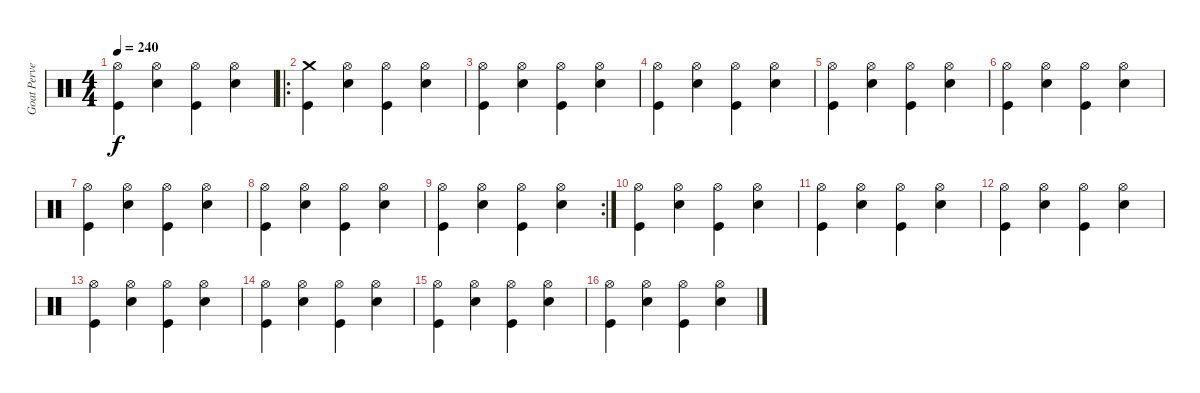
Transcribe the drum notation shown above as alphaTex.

\track ("Goat Pervertor" "Goat Perve") {instrument percussion}
\staff {score}
\articulation defaults
\ts (4 4)
\tempo 240
\clef neutral
\ks c
("Kick (hit)" "Hi-Hat (open)").4{dy f} ("Snare (hit) 2" "Hi-Hat (open)").4 ("Kick (hit)" "Hi-Hat (open)").4 ("Snare (hit) 2" "Hi-Hat (open)").4 |
\ro
("Kick (hit)" "Crash medium (hit)").4 ("Snare (hit) 2" "Hi-Hat (open)").4 ("Kick (hit)" "Hi-Hat (open)").4 ("Snare (hit) 2" "Hi-Hat (open)").4 |
("Kick (hit)" "Hi-Hat (open)").4 ("Snare (hit) 2" "Hi-Hat (open)").4 ("Kick (hit)" "Hi-Hat (open)").4 ("Snare (hit) 2" "Hi-Hat (open)").4 |
("Kick (hit)" "Hi-Hat (open)").4 ("Snare (hit) 2" "Hi-Hat (open)").4 ("Kick (hit)" "Hi-Hat (open)").4 ("Snare (hit) 2" "Hi-Hat (open)").4 |
("Kick (hit)" "Hi-Hat (open)").4 ("Snare (hit) 2" "Hi-Hat (open)").4 ("Kick (hit)" "Hi-Hat (open)").4 ("Snare (hit) 2" "Hi-Hat (open)").4 |
("Kick (hit)" "Hi-Hat (open)").4 ("Snare (hit) 2" "Hi-Hat (open)").4 ("Kick (hit)" "Hi-Hat (open)").4 ("Snare (hit) 2" "Hi-Hat (open)").4 |
("Kick (hit)" "Hi-Hat (open)").4 ("Snare (hit) 2" "Hi-Hat (open)").4 ("Kick (hit)" "Hi-Hat (open)").4 ("Snare (hit) 2" "Hi-Hat (open)").4 |
("Kick (hit)" "Hi-Hat (open)").4 ("Snare (hit) 2" "Hi-Hat (open)").4 ("Kick (hit)" "Hi-Hat (open)").4 ("Snare (hit) 2" "Hi-Hat (open)").4 |
\rc 2
("Kick (hit)" "Hi-Hat (open)").4 ("Snare (hit) 2" "Hi-Hat (open)").4 ("Kick (hit)" "Hi-Hat (open)").4 ("Snare (hit) 2" "Hi-Hat (open)").4 |
("Kick (hit)" "Hi-Hat (open)").4 ("Snare (hit) 2" "Hi-Hat (open)").4 ("Kick (hit)" "Hi-Hat (open)").4 ("Snare (hit) 2" "Hi-Hat (open)").4 |
("Kick (hit)" "Hi-Hat (open)").4 ("Snare (hit) 2" "Hi-Hat (open)").4 ("Kick (hit)" "Hi-Hat (open)").4 ("Snare (hit) 2" "Hi-Hat (open)").4 |
("Kick (hit)" "Hi-Hat (open)").4 ("Snare (hit) 2" "Hi-Hat (open)").4 ("Kick (hit)" "Hi-Hat (open)").4 ("Snare (hit) 2" "Hi-Hat (open)").4 |
("Kick (hit)" "Hi-Hat (open)").4 ("Snare (hit) 2" "Hi-Hat (open)").4 ("Kick (hit)" "Hi-Hat (open)").4 ("Snare (hit) 2" "Hi-Hat (open)").4 |
("Kick (hit)" "Hi-Hat (open)").4 ("Snare (hit) 2" "Hi-Hat (open)").4 ("Kick (hit)" "Hi-Hat (open)").4 ("Snare (hit) 2" "Hi-Hat (open)").4 |
("Kick (hit)" "Hi-Hat (open)").4 ("Snare (hit) 2" "Hi-Hat (open)").4 ("Kick (hit)" "Hi-Hat (open)").4 ("Snare (hit) 2" "Hi-Hat (open)").4 |
("Kick (hit)" "Hi-Hat (open)").4 ("Snare (hit) 2" "Hi-Hat (open)").4 ("Kick (hit)" "Hi-Hat (open)").4 ("Snare (hit) 2" "Hi-Hat (open)").4
